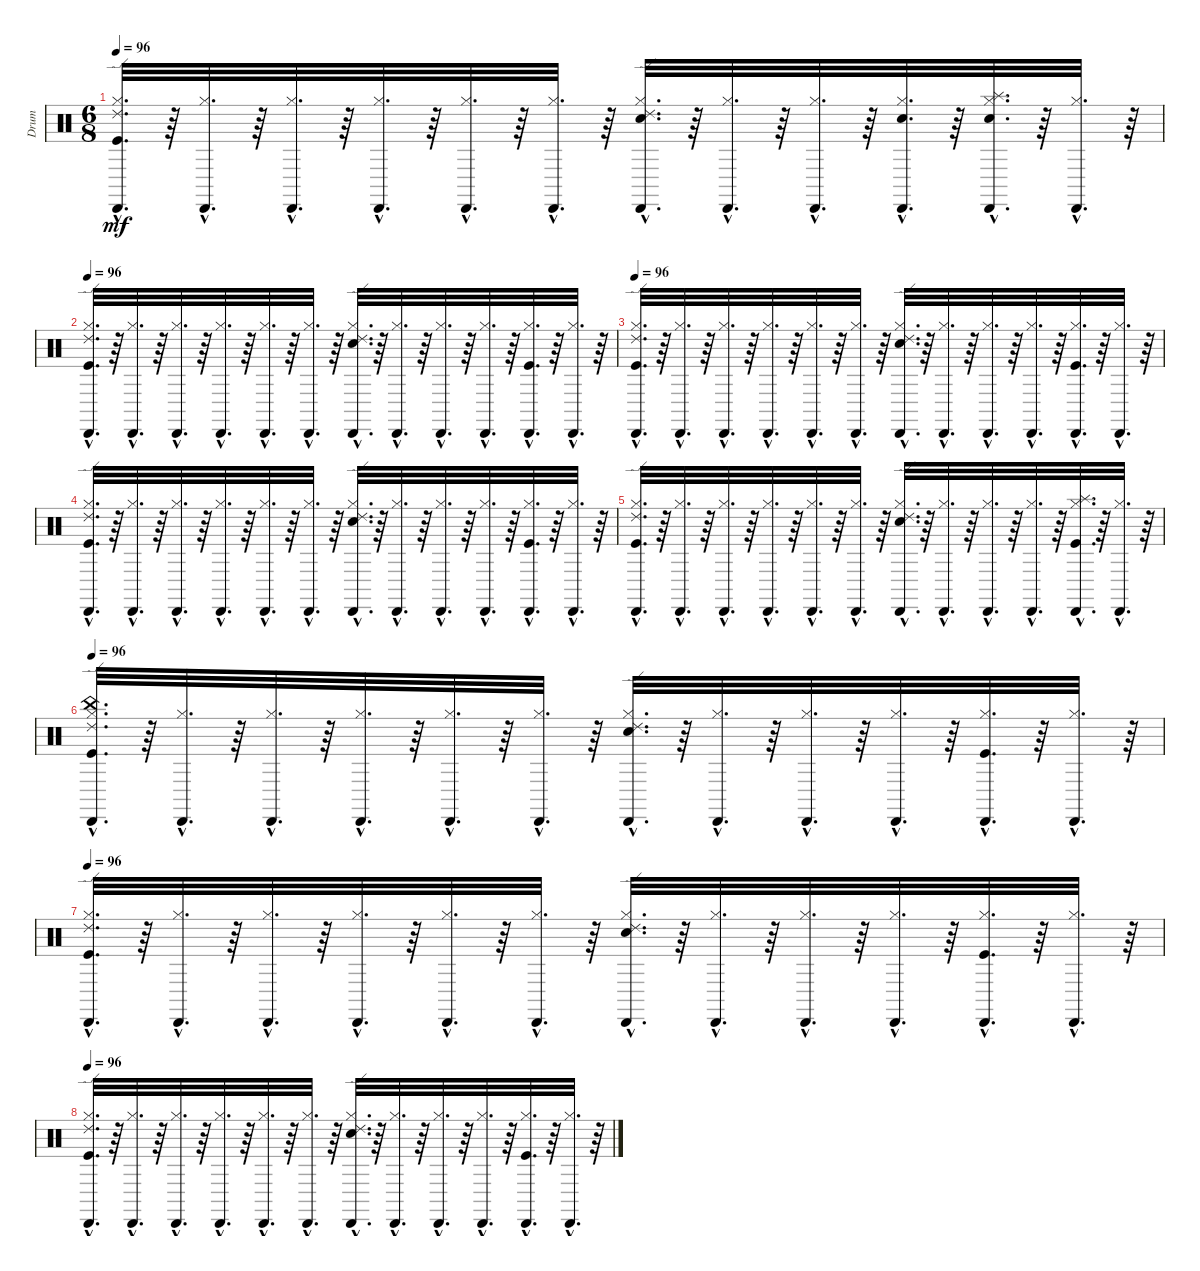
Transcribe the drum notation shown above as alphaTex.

\track ("Drum" "Drum") {instrument percussion}
\staff {score}
\articulation defaults
\ts (6 8)
\tempo 96
\clef neutral
\ks c
("Ride (edge) 2"{hac} "Cabasa (hit)"{hac} "Hi-Hat (closed)"{hac} "Kick (hit)"{hac}).32{d dy mf} r.64 ("Cabasa (hit)"{hac} "Hi-Hat (closed)"{hac}).32{d} r.64 ("Cabasa (hit)"{hac} "Hi-Hat (closed)"{hac}).32{d} r.64 ("Cabasa (hit)"{hac} "Hi-Hat (closed)"{hac}).32{d} r.64 ("Cabasa (hit)"{hac} "Hi-Hat (closed)"{hac}).32{d} r.64 ("Cabasa (hit)"{hac} "Hi-Hat (closed)"{hac}).32{d} r.64 ("Ride (edge) 2"{hac} "Cabasa (hit)"{hac} "Hi-Hat (closed)"{hac} "Snare (hit) 2"{hac}).32{d} r.64 ("Cabasa (hit)"{hac} "Hi-Hat (closed)"{hac}).32{d} r.64 ("Cabasa (hit)"{hac} "Hi-Hat (closed)"{hac}).32{d} r.64 ("Snare (hit) 2"{hac} "Cabasa (hit)"{hac} "Hi-Hat (closed)"{hac}).32{d} r.64 ("Snare (hit) 2"{hac} "Cabasa (hit)"{hac} "Hi-Hat (closed)"{hac} "Splash (hit)"{hac}).32{d} r.64 ("Cabasa (hit)"{hac} "Hi-Hat (closed)"{hac}).32{d} r.64 |
\tempo 96
("Hi-Hat (closed)"{hac} "Kick (hit)"{hac} "Cabasa (hit)"{hac} "Ride (edge) 2"{hac}).32{d} r.64 ("Hi-Hat (closed)"{hac} "Cabasa (hit)"{hac}).32{d} r.64 ("Hi-Hat (closed)"{hac} "Cabasa (hit)"{hac}).32{d} r.64 ("Hi-Hat (closed)"{hac} "Cabasa (hit)"{hac}).32{d} r.64 ("Hi-Hat (closed)"{hac} "Cabasa (hit)"{hac}).32{d} r.64 ("Hi-Hat (closed)"{hac} "Cabasa (hit)"{hac}).32{d} r.64 ("Hi-Hat (closed)"{hac} "Snare (hit) 2"{hac} "Cabasa (hit)"{hac} "Ride (edge) 2"{hac}).32{d} r.64 ("Hi-Hat (closed)"{hac} "Cabasa (hit)"{hac}).32{d} r.64 ("Hi-Hat (closed)"{hac} "Cabasa (hit)"{hac}).32{d} r.64 ("Hi-Hat (closed)"{hac} "Cabasa (hit)"{hac}).32{d} r.64 ("Hi-Hat (closed)"{hac} "Cabasa (hit)"{hac} "Kick (hit)"{hac}).32{d} r.64 ("Hi-Hat (closed)"{hac} "Cabasa (hit)"{hac}).32{d} r.64 |
\tempo 96
("Kick (hit)"{hac} "Hi-Hat (closed)"{hac} "Cabasa (hit)"{hac} "Ride (edge) 2"{hac}).32{d} r.64 ("Hi-Hat (closed)"{hac} "Cabasa (hit)"{hac}).32{d} r.64 ("Hi-Hat (closed)"{hac} "Cabasa (hit)"{hac}).32{d} r.64 ("Hi-Hat (closed)"{hac} "Cabasa (hit)"{hac}).32{d} r.64 ("Hi-Hat (closed)"{hac} "Cabasa (hit)"{hac}).32{d} r.64 ("Hi-Hat (closed)"{hac} "Cabasa (hit)"{hac}).32{d} r.64 ("Snare (hit) 2"{hac} "Hi-Hat (closed)"{hac} "Cabasa (hit)"{hac} "Ride (edge) 2"{hac}).32{d} r.64 ("Hi-Hat (closed)"{hac} "Cabasa (hit)"{hac}).32{d} r.64 ("Hi-Hat (closed)"{hac} "Cabasa (hit)"{hac}).32{d} r.64 ("Hi-Hat (closed)"{hac} "Cabasa (hit)"{hac}).32{d} r.64 ("Hi-Hat (closed)"{hac} "Cabasa (hit)"{hac} "Kick (hit)"{hac}).32{d} r.64 ("Hi-Hat (closed)"{hac} "Cabasa (hit)"{hac}).32{d} r.64 |
("Ride (edge) 2"{hac} "Cabasa (hit)"{hac} "Hi-Hat (closed)"{hac} "Kick (hit)"{hac}).32{d} r.64 ("Cabasa (hit)"{hac} "Hi-Hat (closed)"{hac}).32{d} r.64 ("Cabasa (hit)"{hac} "Hi-Hat (closed)"{hac}).32{d} r.64 ("Cabasa (hit)"{hac} "Hi-Hat (closed)"{hac}).32{d} r.64 ("Cabasa (hit)"{hac} "Hi-Hat (closed)"{hac}).32{d} r.64 ("Cabasa (hit)"{hac} "Hi-Hat (closed)"{hac}).32{d} r.64 ("Ride (edge) 2"{hac} "Cabasa (hit)"{hac} "Hi-Hat (closed)"{hac} "Snare (hit) 2"{hac}).32{d} r.64 ("Cabasa (hit)"{hac} "Hi-Hat (closed)"{hac}).32{d} r.64 ("Cabasa (hit)"{hac} "Hi-Hat (closed)"{hac}).32{d} r.64 ("Cabasa (hit)"{hac} "Hi-Hat (closed)"{hac}).32{d} r.64 ("Cabasa (hit)"{hac} "Hi-Hat (closed)"{hac} "Kick (hit)"{hac}).32{d} r.64 ("Cabasa (hit)"{hac} "Hi-Hat (closed)"{hac}).32{d} r.64 |
("Ride (edge) 2"{hac} "Cabasa (hit)"{hac} "Hi-Hat (closed)"{hac} "Kick (hit)"{hac}).32{d} r.64 ("Cabasa (hit)"{hac} "Hi-Hat (closed)"{hac}).32{d} r.64 ("Cabasa (hit)"{hac} "Hi-Hat (closed)"{hac}).32{d} r.64 ("Cabasa (hit)"{hac} "Hi-Hat (closed)"{hac}).32{d} r.64 ("Cabasa (hit)"{hac} "Hi-Hat (closed)"{hac}).32{d} r.64 ("Cabasa (hit)"{hac} "Hi-Hat (closed)"{hac}).32{d} r.64 ("Ride (edge) 2"{hac} "Cabasa (hit)"{hac} "Hi-Hat (closed)"{hac} "Snare (hit) 2"{hac}).32{d} r.64 ("Cabasa (hit)"{hac} "Hi-Hat (closed)"{hac}).32{d} r.64 ("Cabasa (hit)"{hac} "Hi-Hat (closed)"{hac}).32{d} r.64 ("Cabasa (hit)"{hac} "Hi-Hat (closed)"{hac}).32{d} r.64 ("Cabasa (hit)"{hac} "Hi-Hat (closed)"{hac} "Splash (hit)"{hac} "Kick (hit)"{hac}).32{d} r.64 ("Cabasa (hit)"{hac} "Hi-Hat (closed)"{hac}).32{d} r.64 |
\tempo 96
("Hi-Hat (closed)"{hac} "Kick (hit)"{hac} "China (hit)"{hac} "Cabasa (hit)"{hac} "Ride (edge) 2"{hac}).32{d} r.64 ("Hi-Hat (closed)"{hac} "Cabasa (hit)"{hac}).32{d} r.64 ("Hi-Hat (closed)"{hac} "Cabasa (hit)"{hac}).32{d} r.64 ("Hi-Hat (closed)"{hac} "Cabasa (hit)"{hac}).32{d} r.64 ("Hi-Hat (closed)"{hac} "Cabasa (hit)"{hac}).32{d} r.64 ("Hi-Hat (closed)"{hac} "Cabasa (hit)"{hac}).32{d} r.64 ("Hi-Hat (closed)"{hac} "Snare (hit) 2"{hac} "Cabasa (hit)"{hac} "Ride (edge) 2"{hac}).32{d} r.64 ("Hi-Hat (closed)"{hac} "Cabasa (hit)"{hac}).32{d} r.64 ("Hi-Hat (closed)"{hac} "Cabasa (hit)"{hac}).32{d} r.64 ("Hi-Hat (closed)"{hac} "Cabasa (hit)"{hac}).32{d} r.64 ("Hi-Hat (closed)"{hac} "Cabasa (hit)"{hac} "Kick (hit)"{hac}).32{d} r.64 ("Hi-Hat (closed)"{hac} "Cabasa (hit)"{hac}).32{d} r.64 |
\tempo 96
("Kick (hit)"{hac} "Hi-Hat (closed)"{hac} "Cabasa (hit)"{hac} "Ride (edge) 2"{hac}).32{d} r.64 ("Hi-Hat (closed)"{hac} "Cabasa (hit)"{hac}).32{d} r.64 ("Hi-Hat (closed)"{hac} "Cabasa (hit)"{hac}).32{d} r.64 ("Hi-Hat (closed)"{hac} "Cabasa (hit)"{hac}).32{d} r.64 ("Hi-Hat (closed)"{hac} "Cabasa (hit)"{hac}).32{d} r.64 ("Hi-Hat (closed)"{hac} "Cabasa (hit)"{hac}).32{d} r.64 ("Snare (hit) 2"{hac} "Hi-Hat (closed)"{hac} "Cabasa (hit)"{hac} "Ride (edge) 2"{hac}).32{d} r.64 ("Hi-Hat (closed)"{hac} "Cabasa (hit)"{hac}).32{d} r.64 ("Hi-Hat (closed)"{hac} "Cabasa (hit)"{hac}).32{d} r.64 ("Hi-Hat (closed)"{hac} "Cabasa (hit)"{hac}).32{d} r.64 ("Hi-Hat (closed)"{hac} "Cabasa (hit)"{hac} "Kick (hit)"{hac}).32{d} r.64 ("Hi-Hat (closed)"{hac} "Cabasa (hit)"{hac}).32{d} r.64 |
\tempo 96
("Ride (edge) 2"{hac} "Cabasa (hit)"{hac} "Hi-Hat (closed)"{hac} "Kick (hit)"{hac}).32{d} r.64 ("Cabasa (hit)"{hac} "Hi-Hat (closed)"{hac}).32{d} r.64 ("Cabasa (hit)"{hac} "Hi-Hat (closed)"{hac}).32{d} r.64 ("Cabasa (hit)"{hac} "Hi-Hat (closed)"{hac}).32{d} r.64 ("Cabasa (hit)"{hac} "Hi-Hat (closed)"{hac}).32{d} r.64 ("Cabasa (hit)"{hac} "Hi-Hat (closed)"{hac}).32{d} r.64 ("Ride (edge) 2"{hac} "Cabasa (hit)"{hac} "Hi-Hat (closed)"{hac} "Snare (hit) 2"{hac}).32{d} r.64 ("Cabasa (hit)"{hac} "Hi-Hat (closed)"{hac}).32{d} r.64 ("Cabasa (hit)"{hac} "Hi-Hat (closed)"{hac}).32{d} r.64 ("Cabasa (hit)"{hac} "Hi-Hat (closed)"{hac}).32{d} r.64 ("Cabasa (hit)"{hac} "Hi-Hat (closed)"{hac} "Kick (hit)"{hac}).32{d} r.64 ("Cabasa (hit)"{hac} "Hi-Hat (closed)"{hac}).32{d} r.64
